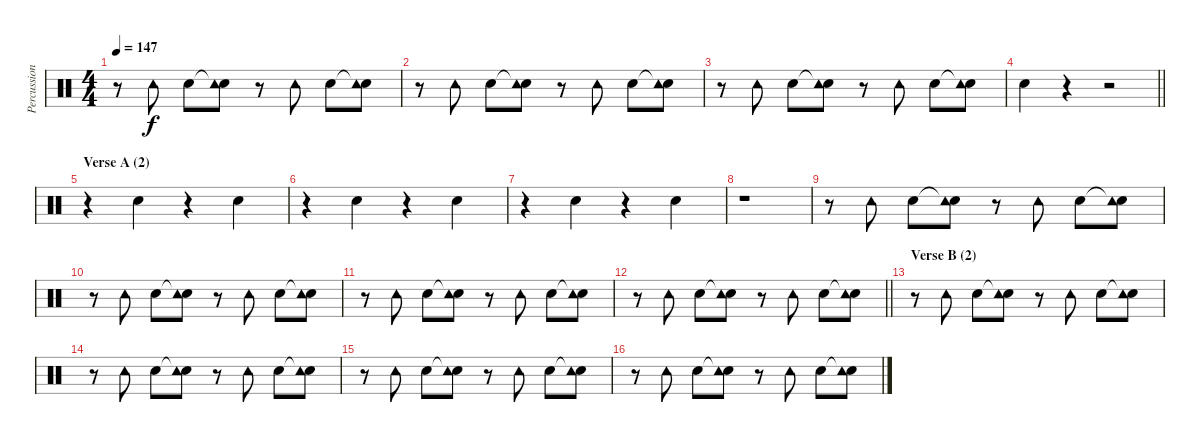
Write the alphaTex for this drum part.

\track ("Percussion" "Percussion") {instrument percussion}
\staff {score}
\articulation defaults
\ts (4 4)
\tempo 147
\clef neutral
\ks aminor
r.8{dy f} "Tambourine (hit)".8 "Hand Clap (hit)".8 ("Snare (hit)"{t} "Tambourine (hit)").8 r.8 "Tambourine (hit)".8 "Hand Clap (hit)".8 ("Snare (hit)"{t} "Tambourine (hit)").8 |
r.8 "Tambourine (hit)".8 "Hand Clap (hit)".8 ("Snare (hit)"{t} "Tambourine (hit)").8 r.8 "Tambourine (hit)".8 "Hand Clap (hit)".8 ("Snare (hit)"{t} "Tambourine (hit)").8 |
r.8 "Tambourine (hit)".8 "Hand Clap (hit)".8 ("Snare (hit)"{t} "Tambourine (hit)").8 r.8 "Tambourine (hit)".8 "Hand Clap (hit)".8 ("Snare (hit)"{t} "Tambourine (hit)").8 |
\barLineRight lightlight "Hand Clap (hit)".4
r.4 r.2 |
\section ("" "Verse A (2)")
r.4 "Hand Clap (hit)".4 r.4 "Hand Clap (hit)".4 |
r.4 "Hand Clap (hit)".4 r.4 "Hand Clap (hit)".4 |
r.4 "Hand Clap (hit)".4 r.4 "Hand Clap (hit)".4 |
r.1 |
r.8 "Tambourine (hit)".8 "Hand Clap (hit)".8 ("Snare (hit)"{t} "Tambourine (hit)").8 r.8 "Tambourine (hit)".8 "Hand Clap (hit)".8 ("Snare (hit)"{t} "Tambourine (hit)").8 |
r.8 "Tambourine (hit)".8 "Hand Clap (hit)".8 ("Snare (hit)"{t} "Tambourine (hit)").8 r.8 "Tambourine (hit)".8 "Hand Clap (hit)".8 ("Snare (hit)"{t} "Tambourine (hit)").8 |
r.8 "Tambourine (hit)".8 "Hand Clap (hit)".8 ("Snare (hit)"{t} "Tambourine (hit)").8 r.8 "Tambourine (hit)".8 "Hand Clap (hit)".8 ("Snare (hit)"{t} "Tambourine (hit)").8 |
\barLineRight lightlight
r.8 "Tambourine (hit)".8 "Hand Clap (hit)".8 ("Snare (hit)"{t} "Tambourine (hit)").8 r.8 "Tambourine (hit)".8 "Hand Clap (hit)".8 ("Snare (hit)"{t} "Tambourine (hit)").8 |
\section ("" "Verse B (2)")
r.8 "Tambourine (hit)".8 "Hand Clap (hit)".8 ("Snare (hit)"{t} "Tambourine (hit)").8 r.8 "Tambourine (hit)".8 "Hand Clap (hit)".8 ("Snare (hit)"{t} "Tambourine (hit)").8 |
r.8 "Tambourine (hit)".8 "Hand Clap (hit)".8 ("Snare (hit)"{t} "Tambourine (hit)").8 r.8 "Tambourine (hit)".8 "Hand Clap (hit)".8 ("Snare (hit)"{t} "Tambourine (hit)").8 |
r.8 "Tambourine (hit)".8 "Hand Clap (hit)".8 ("Snare (hit)"{t} "Tambourine (hit)").8 r.8 "Tambourine (hit)".8 "Hand Clap (hit)".8 ("Snare (hit)"{t} "Tambourine (hit)").8 |
r.8 "Tambourine (hit)".8 "Hand Clap (hit)".8 ("Snare (hit)"{t} "Tambourine (hit)").8 r.8 "Tambourine (hit)".8 "Hand Clap (hit)".8 ("Snare (hit)"{t} "Tambourine (hit)").8
